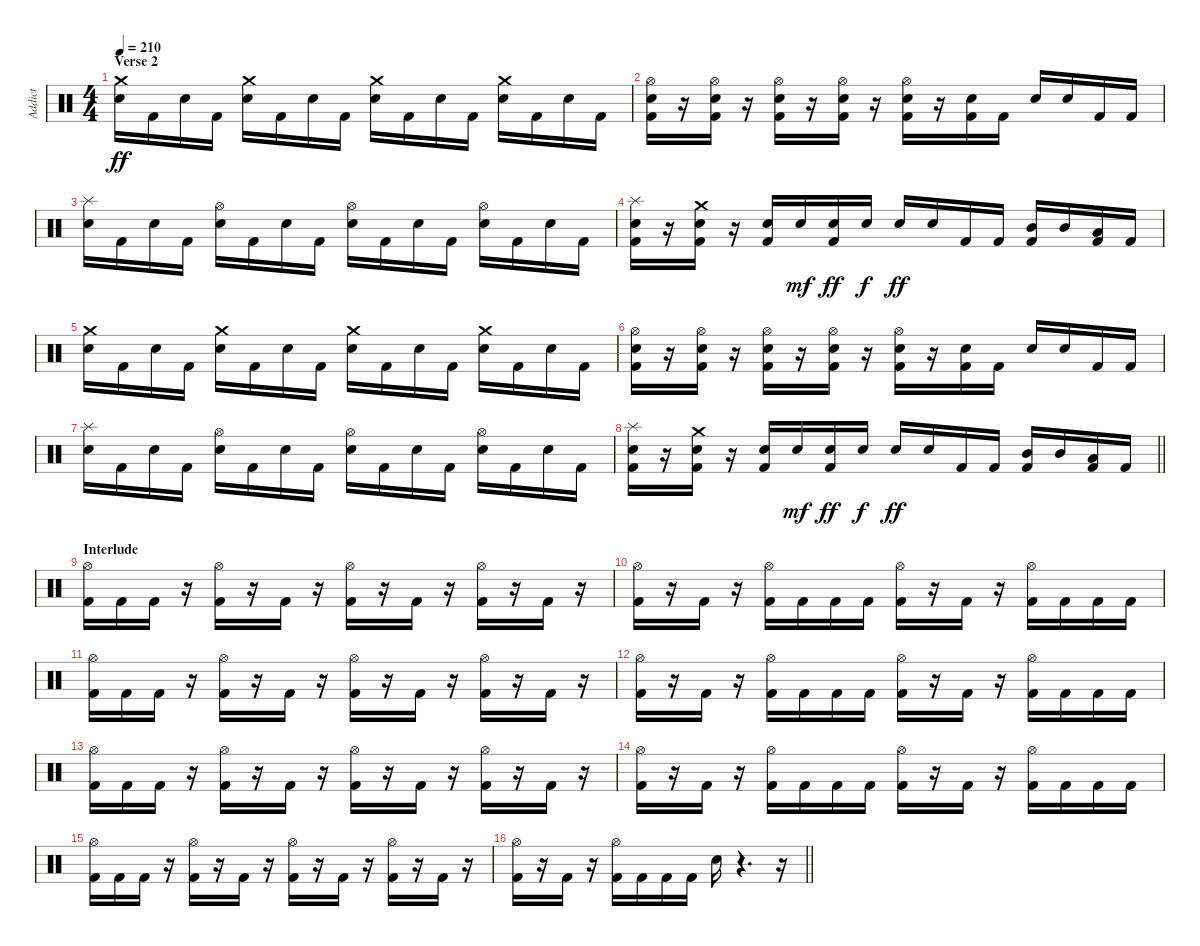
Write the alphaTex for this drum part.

\track ("Addict" "Addict") {instrument percussion}
\staff {score}
\articulation defaults
\ts (4 4)
\section ("" "Verse 2")
\tempo 210
\clef neutral
\ks c
("Snare (hit) 2" "Crash medium (hit)").16{dy ff} "Kick (hit) 2".16 "Snare (hit) 2".16 "Kick (hit) 2".16 ("Snare (hit) 2" "Crash medium (hit)").16 "Kick (hit) 2".16 "Snare (hit) 2".16 "Kick (hit) 2".16 ("Snare (hit) 2" "Crash medium (hit)").16 "Kick (hit) 2".16 "Snare (hit) 2".16 "Kick (hit) 2".16 ("Snare (hit) 2" "Crash medium (hit)").16 "Kick (hit) 2".16 "Snare (hit) 2".16 "Kick (hit) 2".16 |
("Kick (hit) 2" "Snare (hit) 2" "Hi-Hat (open)").16 r.16 ("Kick (hit) 2" "Snare (hit) 2" "Hi-Hat (open)").16 r.16 ("Kick (hit) 2" "Snare (hit) 2" "Hi-Hat (open)").16 r.16 ("Kick (hit) 2" "Snare (hit) 2" "Hi-Hat (open)").16 r.16 ("Kick (hit) 2" "Snare (hit) 2" "Hi-Hat (open)").16 r.16 ("Kick (hit) 2" "Snare (hit) 2").16 "Kick (hit) 2".16 "Snare (hit) 2".16 "Snare (hit) 2".16 "Kick (hit) 2".16 "Kick (hit) 2".16 |
("Snare (hit) 2" "Splash (hit)").16 "Kick (hit) 2".16 "Snare (hit) 2".16 "Kick (hit) 2".16 ("Snare (hit) 2" "Hi-Hat (open)").16 "Kick (hit) 2".16 "Snare (hit) 2".16 "Kick (hit) 2".16 ("Snare (hit) 2" "Hi-Hat (open)").16 "Kick (hit) 2".16 "Snare (hit) 2".16 "Kick (hit) 2".16 ("Snare (hit) 2" "Hi-Hat (open)").16 "Kick (hit) 2".16 "Snare (hit) 2".16 "Kick (hit) 2".16 |
("Kick (hit) 2" "Snare (hit) 2" "Splash (hit)").16 r.16 ("Kick (hit) 2" "Snare (hit) 2" "Crash medium (hit)").16 r.16 ("Kick (hit) 2" "Snare (hit) 2").16 "Snare (hit) 2".16{dy mf} ("Kick (hit) 2" "Snare (hit) 2").16{dy ff} "Snare (hit) 2".16{dy f} "Snare (hit) 2".16{dy ff} "Snare (hit) 2".16 "Kick (hit) 2".16 "Kick (hit) 2".16 ("Kick (hit) 2" "Mid Tom (hit)").16 "Mid Tom (hit)".16 ("Kick (hit) 2" "Low Tom (hit)").16 "Kick (hit) 2".16 |
("Snare (hit) 2" "Crash medium (hit)").16 "Kick (hit) 2".16 "Snare (hit) 2".16 "Kick (hit) 2".16 ("Snare (hit) 2" "Crash medium (hit)").16 "Kick (hit) 2".16 "Snare (hit) 2".16 "Kick (hit) 2".16 ("Snare (hit) 2" "Crash medium (hit)").16 "Kick (hit) 2".16 "Snare (hit) 2".16 "Kick (hit) 2".16 ("Snare (hit) 2" "Crash medium (hit)").16 "Kick (hit) 2".16 "Snare (hit) 2".16 "Kick (hit) 2".16 |
("Kick (hit) 2" "Snare (hit) 2" "Hi-Hat (open)").16 r.16 ("Kick (hit) 2" "Snare (hit) 2" "Hi-Hat (open)").16 r.16 ("Kick (hit) 2" "Snare (hit) 2" "Hi-Hat (open)").16 r.16 ("Kick (hit) 2" "Snare (hit) 2" "Hi-Hat (open)").16 r.16 ("Kick (hit) 2" "Snare (hit) 2" "Hi-Hat (open)").16 r.16 ("Kick (hit) 2" "Snare (hit) 2").16 "Kick (hit) 2".16 "Snare (hit) 2".16 "Snare (hit) 2".16 "Kick (hit) 2".16 "Kick (hit) 2".16 |
("Snare (hit) 2" "Splash (hit)").16 "Kick (hit) 2".16 "Snare (hit) 2".16 "Kick (hit) 2".16 ("Snare (hit) 2" "Hi-Hat (open)").16 "Kick (hit) 2".16 "Snare (hit) 2".16 "Kick (hit) 2".16 ("Snare (hit) 2" "Hi-Hat (open)").16 "Kick (hit) 2".16 "Snare (hit) 2".16 "Kick (hit) 2".16 ("Snare (hit) 2" "Hi-Hat (open)").16 "Kick (hit) 2".16 "Snare (hit) 2".16 "Kick (hit) 2".16 |
\barLineRight lightlight
("Kick (hit) 2" "Snare (hit) 2" "Splash (hit)").16 r.16 ("Kick (hit) 2" "Snare (hit) 2" "Crash medium (hit)").16 r.16 ("Kick (hit) 2" "Snare (hit) 2").16 "Snare (hit) 2".16{dy mf} ("Kick (hit) 2" "Snare (hit) 2").16{dy ff} "Snare (hit) 2".16{dy f} "Snare (hit) 2".16{dy ff} "Snare (hit) 2".16 "Kick (hit) 2".16 "Kick (hit) 2".16 ("Kick (hit) 2" "Mid Tom (hit)").16 "Mid Tom (hit)".16 ("Kick (hit) 2" "Low Tom (hit)").16 "Kick (hit) 2".16 |
\section ("" "Interlude")
("Kick (hit) 2" "Hi-Hat (open)").16 "Kick (hit) 2".16 "Kick (hit) 2".16 r.16 ("Kick (hit) 2" "Hi-Hat (open)").16 r.16 "Kick (hit) 2".16 r.16 ("Kick (hit) 2" "Hi-Hat (open)").16 r.16 "Kick (hit) 2".16 r.16 ("Kick (hit) 2" "Hi-Hat (open)").16 r.16 "Kick (hit) 2".16 r.16 |
("Kick (hit) 2" "Hi-Hat (open)").16 r.16 "Kick (hit) 2".16 r.16 ("Kick (hit) 2" "Hi-Hat (open)").16 "Kick (hit) 2".16 "Kick (hit) 2".16 "Kick (hit) 2".16 ("Kick (hit) 2" "Hi-Hat (open)").16 r.16 "Kick (hit) 2".16 r.16 ("Kick (hit) 2" "Hi-Hat (open)").16 "Kick (hit) 2".16 "Kick (hit) 2".16 "Kick (hit) 2".16 |
("Kick (hit) 2" "Hi-Hat (open)").16 "Kick (hit) 2".16 "Kick (hit) 2".16 r.16 ("Kick (hit) 2" "Hi-Hat (open)").16 r.16 "Kick (hit) 2".16 r.16 ("Kick (hit) 2" "Hi-Hat (open)").16 r.16 "Kick (hit) 2".16 r.16 ("Kick (hit) 2" "Hi-Hat (open)").16 r.16 "Kick (hit) 2".16 r.16 |
("Kick (hit) 2" "Hi-Hat (open)").16 r.16 "Kick (hit) 2".16 r.16 ("Kick (hit) 2" "Hi-Hat (open)").16 "Kick (hit) 2".16 "Kick (hit) 2".16 "Kick (hit) 2".16 ("Kick (hit) 2" "Hi-Hat (open)").16 r.16 "Kick (hit) 2".16 r.16 ("Kick (hit) 2" "Hi-Hat (open)").16 "Kick (hit) 2".16 "Kick (hit) 2".16 "Kick (hit) 2".16 |
("Kick (hit) 2" "Hi-Hat (open)").16 "Kick (hit) 2".16 "Kick (hit) 2".16 r.16 ("Kick (hit) 2" "Hi-Hat (open)").16 r.16 "Kick (hit) 2".16 r.16 ("Kick (hit) 2" "Hi-Hat (open)").16 r.16 "Kick (hit) 2".16 r.16 ("Kick (hit) 2" "Hi-Hat (open)").16 r.16 "Kick (hit) 2".16 r.16 |
("Kick (hit) 2" "Hi-Hat (open)").16 r.16 "Kick (hit) 2".16 r.16 ("Kick (hit) 2" "Hi-Hat (open)").16 "Kick (hit) 2".16 "Kick (hit) 2".16 "Kick (hit) 2".16 ("Kick (hit) 2" "Hi-Hat (open)").16 r.16 "Kick (hit) 2".16 r.16 ("Kick (hit) 2" "Hi-Hat (open)").16 "Kick (hit) 2".16 "Kick (hit) 2".16 "Kick (hit) 2".16 |
("Kick (hit) 2" "Hi-Hat (open)").16 "Kick (hit) 2".16 "Kick (hit) 2".16 r.16 ("Kick (hit) 2" "Hi-Hat (open)").16 r.16 "Kick (hit) 2".16 r.16 ("Kick (hit) 2" "Hi-Hat (open)").16 r.16 "Kick (hit) 2".16 r.16 ("Kick (hit) 2" "Hi-Hat (open)").16 r.16 "Kick (hit) 2".16 r.16 |
\barLineRight lightlight
("Kick (hit) 2" "Hi-Hat (open)").16 r.16 "Kick (hit) 2".16 r.16 ("Kick (hit) 2" "Hi-Hat (open)").16 "Kick (hit) 2".16 "Kick (hit) 2".16 "Kick (hit) 2".16 "Snare (hit) 2".16 r.4{d} r.16
